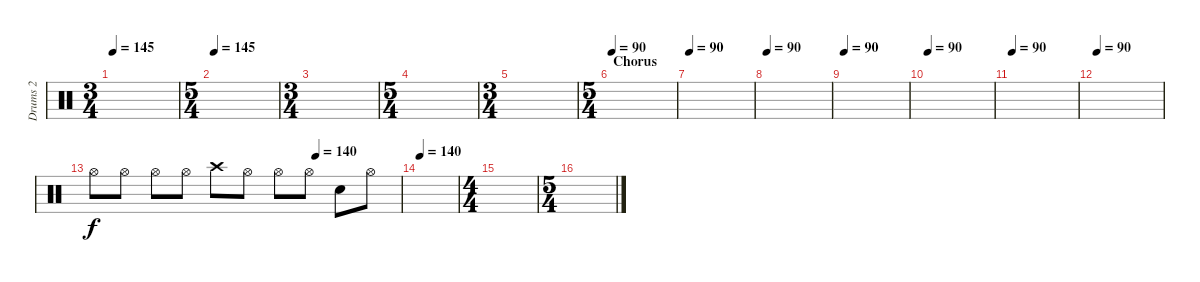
\track ("Drums 2" "Drums 2") {instrument percussion}
\staff {score}
\articulation defaults
\ts (3 4)
\tempo 145
\clef neutral
\ks c
|
\ts (5 4)
\tempo 145
|
\ts (3 4)
|
\ts (5 4)
|
\ts (3 4)
|
\ts (5 4)
\section ("" "Chorus")
\tempo 90
|
\tempo 90
|
\tempo 90
|
\tempo 90
|
\tempo 90
|
\tempo 90
|
\tempo 90
|
\tempo (140 0.725)
"Hi-Hat (open)".8 "Hi-Hat (open)"{x}.8 "Hi-Hat (open)"{x}.8 "Hi-Hat (open)".8 "Crash high (hit)"{x}.8 "Hi-Hat (open)".8 "Hi-Hat (open)"{x}.8 "Hi-Hat (open)".8 "Snare (hit)"{x}.8 "Hi-Hat (open)"{x}.8 |
\tempo 140
|
\ts (4 4)
|
\ts (5 4)
